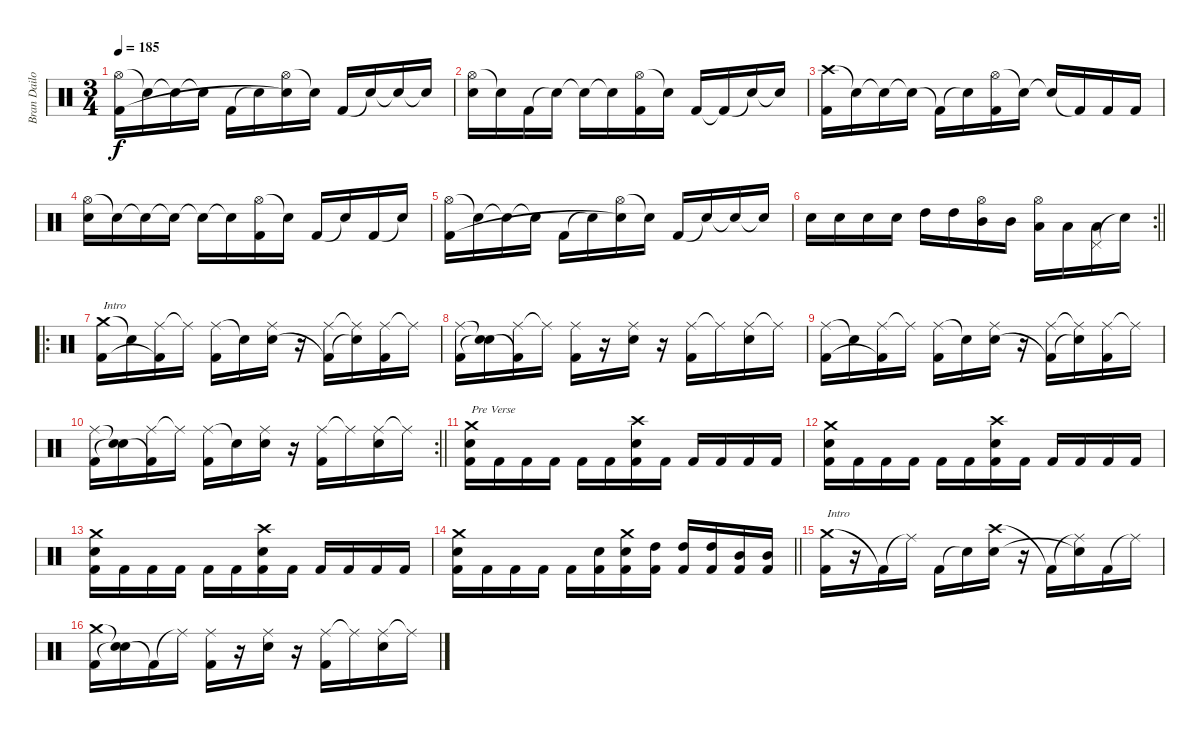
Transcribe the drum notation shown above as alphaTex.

\track ("Bran Dailor" "Bran Dailo") {instrument percussion}
\staff {score}
\articulation defaults
\ts (3 4)
\tempo 185
\clef neutral
\ks c
("Hi-Hat (open)" "Kick (hit) 2").16{dy f} "Snare (hit)"{t}.16 "Snare (hit)"{t}.16 "Snare (hit)"{t}.16 "Kick (hit) 2".16 "Snare (hit)"{t}.16 ("Hi-Hat (open)" "Snare (hit)"{t}).16 "Snare (hit)"{t}.16 "Kick (hit) 2".16 "Snare (hit)"{t}.16 "Snare (hit)"{t}.16 "Snare (hit)"{t}.16 |
("Hi-Hat (open)" "Electric Snare (hit)").16 "Snare (hit)"{t}.16 "Kick (hit) 2".16 "Snare (hit)"{t}.16 "Snare (hit)"{t}.16 "Snare (hit)"{t}.16 ("Hi-Hat (open)" "Kick (hit) 2").16 "Snare (hit)"{t}.16 "Kick (hit) 2".16 "Kick (hit) 2"{t}.16 "Snare (hit)"{t}.16 "Snare (hit)"{t}.16 |
("Crash high (hit)" "Kick (hit) 2").16 "Snare (hit)"{t}.16 "Snare (hit)"{t}.16 "Snare (hit)"{t}.16 "Kick (hit) 2"{t}.16 "Snare (hit)"{t}.16 ("Hi-Hat (open)" "Kick (hit) 2").16 "Snare (hit)"{t}.16 "Snare (hit)"{t}.16 "Kick (hit) 2"{t}.16 "Kick (hit) 2".16 "Kick (hit) 2".16 |
("Hi-Hat (open)" "Electric Snare (hit)").16 "Snare (hit)"{t}.16 "Snare (hit)"{t}.16 "Snare (hit)"{t}.16 "Snare (hit)"{t}.16 "Snare (hit)"{t}.16 ("Hi-Hat (open)" "Kick (hit) 2").16 "Snare (hit)"{t}.16 "Kick (hit) 2".16 "Snare (hit)"{t}.16 "Kick (hit) 2".16 "Snare (hit)"{t}.16 |
("Hi-Hat (open)" "Kick (hit) 2").16 "Snare (hit)"{t}.16 "Snare (hit)"{t}.16 "Snare (hit)"{t}.16 "Kick (hit) 2".16 "Snare (hit)"{t}.16 ("Hi-Hat (open)" "Snare (hit)"{t}).16 "Snare (hit)"{t}.16 "Kick (hit) 2".16 "Snare (hit)"{t}.16 "Snare (hit)"{t}.16 "Snare (hit)"{t}.16 |
\rc 2
\barLineRight lightlight "Electric Snare (hit)".16 "Electric Snare (hit)".16 "Electric Snare (hit)".16 "Electric Snare (hit)".16 "High Tom (hit)".16 "High Tom (hit)".16
("Hi-Hat (open)" "Mid Tom (hit)").16 "Mid Tom (hit)".16 ("Hi-Hat (open)" "Low Tom (hit)").16 "Low Tom (hit)".16 ("Pedal Hi-Hat (hit)" "Low Tom (hit)").16 "Snare (hit)"{t}.16 |
\ro
("Crash medium (hit)" "Kick (hit) 2").16{txt "Intro"} "Snare (hit)"{t}.16 ("Ride (middle)" "Kick (hit) 2"{t}).16 "Ride (middle)"{t}.16 ("Ride (middle)" "Kick (hit) 2").16 "Snare (hit)"{t}.16 ("Ride (middle)" "Electric Snare (hit)").16 r.16 ("Ride (middle)" "Kick (hit) 2"{t}).16 ("Ride (middle)"{t} "Snare (hit)"{t}).16 ("Ride (middle)" "Kick (hit) 2").16 "Ride (middle)"{t}.16 |
("Ride (middle)" "Kick (hit) 2").16 ("Snare (hit)"{t} "Snare (hit)"{t}).16 ("Ride (middle)" "Kick (hit) 2"{t}).16 "Ride (middle)"{t}.16 ("Ride (middle)" "Kick (hit) 2").16 r.16 ("Ride (middle)" "Electric Snare (hit)").16 r.16 ("Ride (middle)" "Kick (hit) 2").16 "Ride (middle)"{t}.16 ("Ride (middle)" "Electric Snare (hit)").16 "Ride (middle)"{t}.16 |
("Ride (middle)" "Kick (hit) 2").16 "Snare (hit)"{t}.16 ("Ride (middle)" "Kick (hit) 2"{t}).16 "Ride (middle)"{t}.16 ("Ride (middle)" "Kick (hit) 2").16 "Snare (hit)"{t}.16 ("Ride (middle)" "Electric Snare (hit)").16 r.16 ("Ride (middle)" "Kick (hit) 2"{t}).16 ("Ride (middle)"{t} "Snare (hit)"{t}).16 ("Ride (middle)" "Kick (hit) 2").16 "Ride (middle)"{t}.16 |
\rc 2
\barLineRight lightlight
("Ride (middle)" "Kick (hit) 2").16 ("Snare (hit)"{t} "Snare (hit)"{t}).16 ("Ride (middle)" "Kick (hit) 2"{t}).16 "Ride (middle)"{t}.16 ("Ride (middle)" "Kick (hit) 2").16 "Snare (hit)"{t}.16 ("Ride (middle)" "Electric Snare (hit)").16 r.16 ("Ride (middle)" "Kick (hit) 2").16 "Ride (middle)"{t}.16 ("Ride (middle)" "Electric Snare (hit)").16 "Ride (middle)"{t}.16 |
("Crash medium (hit)" "Electric Snare (hit)" "Kick (hit) 2").16{txt "Pre Verse"} "Kick (hit) 2".16 "Kick (hit) 2".16 "Kick (hit) 2".16 "Kick (hit) 2".16 "Kick (hit) 2".16 ("Crash high (hit)" "Electric Snare (hit)" "Kick (hit) 2").16 "Kick (hit) 2".16 "Kick (hit) 2".16 "Kick (hit) 2".16 "Kick (hit) 2".16 "Kick (hit) 2".16 |
("Crash medium (hit)" "Electric Snare (hit)" "Kick (hit) 2").16 "Kick (hit) 2".16 "Kick (hit) 2".16 "Kick (hit) 2".16 "Kick (hit) 2".16 "Kick (hit) 2".16 ("Crash high (hit)" "Electric Snare (hit)" "Kick (hit) 2").16 "Kick (hit) 2".16 "Kick (hit) 2".16 "Kick (hit) 2".16 "Kick (hit) 2".16 "Kick (hit) 2".16 |
("Crash medium (hit)" "Electric Snare (hit)" "Kick (hit) 2").16 "Kick (hit) 2".16 "Kick (hit) 2".16 "Kick (hit) 2".16 "Kick (hit) 2".16 "Kick (hit) 2".16 ("Crash high (hit)" "Electric Snare (hit)" "Kick (hit) 2").16 "Kick (hit) 2".16 "Kick (hit) 2".16 "Kick (hit) 2".16 "Kick (hit) 2".16 "Kick (hit) 2".16 |
\barLineRight lightlight
("Crash medium (hit)" "Electric Snare (hit)" "Kick (hit) 2").16 "Kick (hit) 2".16 "Kick (hit) 2".16 "Kick (hit) 2".16 "Kick (hit) 2".16 ("Electric Snare (hit)" "Kick (hit) 2").16 ("Crash medium (hit)" "Electric Snare (hit)" "Kick (hit) 2").16 ("High Tom (hit)" "Kick (hit) 2").16 ("High Tom (hit)" "Kick (hit) 2").16 ("High Tom (hit)" "Kick (hit) 2").16 ("Mid Tom (hit)" "Kick (hit) 2").16 ("Mid Tom (hit)" "Kick (hit) 2").16 |
("Crash medium (hit)" "Kick (hit) 2").16{txt "Intro"} r.16 "Kick (hit) 2"{t}.16 "Ride (middle)"{t}.16 "Kick (hit) 2".16 "Snare (hit)"{t}.16 ("Crash high (hit)" "Electric Snare (hit)").16 r.16 "Kick (hit) 2"{t}.16 ("Ride (middle)"{t} "Snare (hit)"{t}).16 "Kick (hit) 2".16 "Ride (middle)"{t}.16 |
("Crash medium (hit)" "Kick (hit) 2").16 ("Snare (hit)"{t} "Snare (hit)"{t}).16 "Kick (hit) 2"{t}.16 "Ride (middle)"{t}.16 ("Ride (middle)" "Kick (hit) 2").16 r.16 ("Ride (middle)" "Electric Snare (hit)").16 r.16 ("Ride (middle)" "Kick (hit) 2").16 "Ride (middle)"{t}.16 ("Ride (middle)" "Electric Snare (hit)").16 "Ride (middle)"{t}.16
